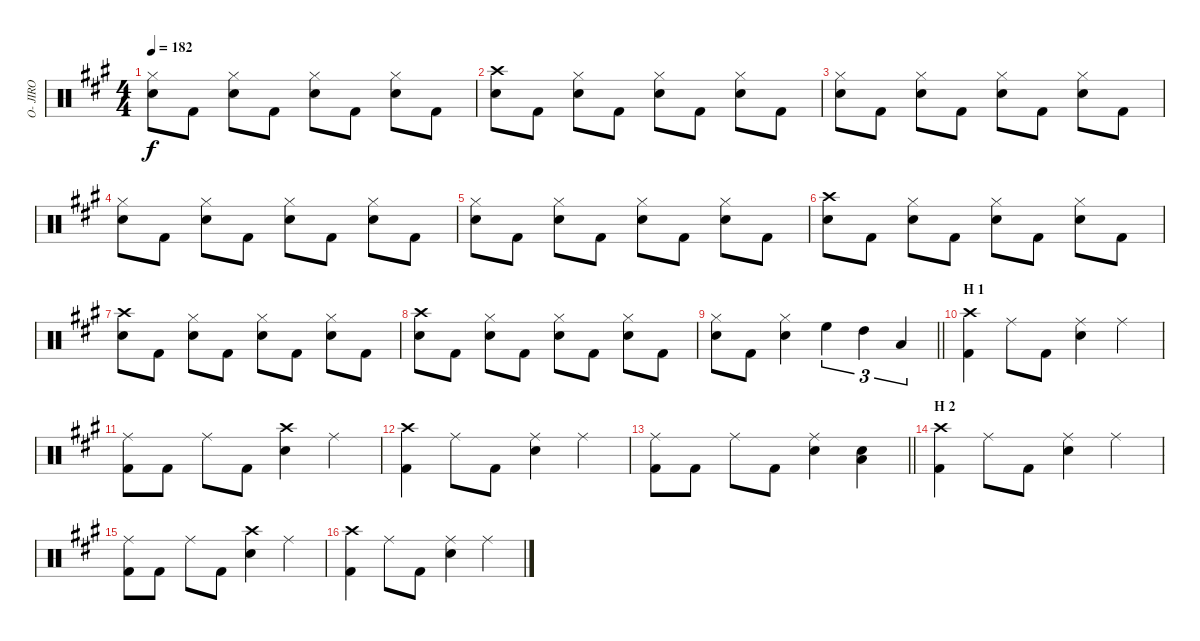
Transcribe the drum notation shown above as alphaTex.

\track ("O- JIRO" "O- JIRO") {instrument percussion}
\staff {score}
\articulation defaults
\ts (4 4)
\tempo 182
\clef neutral
\ks a
("Hi-Hat (closed)" "Snare (hit) 2").8{dy f} "Kick (hit) 2".8 ("Hi-Hat (closed)" "Snare (hit) 2").8 "Kick (hit) 2".8 ("Hi-Hat (closed)" "Snare (hit) 2").8 "Kick (hit) 2".8 ("Hi-Hat (closed)" "Snare (hit) 2").8 "Kick (hit) 2".8 |
("Crash high (hit)" "Snare (hit) 2").8 "Kick (hit) 2".8 ("Hi-Hat (closed)" "Snare (hit) 2").8 "Kick (hit) 2".8 ("Hi-Hat (closed)" "Snare (hit) 2").8 "Kick (hit) 2".8 ("Hi-Hat (closed)" "Snare (hit) 2").8 "Kick (hit) 2".8 |
("Hi-Hat (closed)" "Snare (hit) 2").8 "Kick (hit) 2".8 ("Hi-Hat (closed)" "Snare (hit) 2").8 "Kick (hit) 2".8 ("Hi-Hat (closed)" "Snare (hit) 2").8 "Kick (hit) 2".8 ("Hi-Hat (closed)" "Snare (hit) 2").8 "Kick (hit) 2".8 |
("Hi-Hat (closed)" "Snare (hit) 2").8 "Kick (hit) 2".8 ("Hi-Hat (closed)" "Snare (hit) 2").8 "Kick (hit) 2".8 ("Hi-Hat (closed)" "Snare (hit) 2").8 "Kick (hit) 2".8 ("Hi-Hat (closed)" "Snare (hit) 2").8 "Kick (hit) 2".8 |
("Hi-Hat (closed)" "Snare (hit) 2").8 "Kick (hit) 2".8 ("Hi-Hat (closed)" "Snare (hit) 2").8 "Kick (hit) 2".8 ("Hi-Hat (closed)" "Snare (hit) 2").8 "Kick (hit) 2".8 ("Hi-Hat (closed)" "Snare (hit) 2").8 "Kick (hit) 2".8 |
("Crash high (hit)" "Snare (hit) 2").8 "Kick (hit) 2".8 ("Hi-Hat (closed)" "Snare (hit) 2").8 "Kick (hit) 2".8 ("Hi-Hat (closed)" "Snare (hit) 2").8 "Kick (hit) 2".8 ("Hi-Hat (closed)" "Snare (hit) 2").8 "Kick (hit) 2".8 |
("Crash high (hit)" "Snare (hit) 2").8 "Kick (hit) 2".8 ("Hi-Hat (closed)" "Snare (hit) 2").8 "Kick (hit) 2".8 ("Hi-Hat (closed)" "Snare (hit) 2").8 "Kick (hit) 2".8 ("Hi-Hat (closed)" "Snare (hit) 2").8 "Kick (hit) 2".8 |
("Crash high (hit)" "Snare (hit) 2").8 "Kick (hit) 2".8 ("Hi-Hat (closed)" "Snare (hit) 2").8 "Kick (hit) 2".8 ("Hi-Hat (closed)" "Snare (hit) 2").8 "Kick (hit) 2".8 ("Hi-Hat (closed)" "Snare (hit) 2").8 "Kick (hit) 2".8 |
\barLineRight lightlight
("Hi-Hat (closed)" "Snare (hit) 2").8 "Kick (hit) 2".8 ("Hi-Hat (closed)" "Snare (hit) 2").4 "High Floor Tom (hit)".4{tu (3 2)} "High Tom (hit)".4{tu (3 2)} "Low Tom (hit)".4{tu (3 2)} |
\section ("" "H 1")
("Crash high (hit)" "Kick (hit) 2").4 "Ride (middle)".8 "Kick (hit) 2".8 ("Ride (middle)" "Snare (hit) 2").4 "Ride (middle)".4 |
("Ride (middle)" "Kick (hit) 2").8 "Kick (hit) 2".8 "Ride (middle)".8 "Kick (hit) 2".8 ("Crash high (hit)" "Snare (hit) 2").4 "Ride (middle)".4 |
("Crash high (hit)" "Kick (hit) 2").4 "Ride (middle)".8 "Kick (hit) 2".8 ("Ride (middle)" "Snare (hit) 2").4 "Ride (middle)".4 |
\barLineRight lightlight
("Ride (middle)" "Kick (hit) 2").8 "Kick (hit) 2".8 "Ride (middle)".8 "Kick (hit) 2".8 ("Ride (middle)" "Snare (hit) 2").4 ("Snare (hit) 2" "Low Tom (hit)").4 |
\section ("" "H 2")
("Crash high (hit)" "Kick (hit) 2").4 "Ride (middle)".8 "Kick (hit) 2".8 ("Ride (middle)" "Snare (hit) 2").4 "Ride (middle)".4 |
("Ride (middle)" "Kick (hit) 2").8 "Kick (hit) 2".8 "Ride (middle)".8 "Kick (hit) 2".8 ("Crash high (hit)" "Snare (hit) 2").4 "Ride (middle)".4 |
("Crash high (hit)" "Kick (hit) 2").4 "Ride (middle)".8 "Kick (hit) 2".8 ("Ride (middle)" "Snare (hit) 2").4 "Ride (middle)".4
